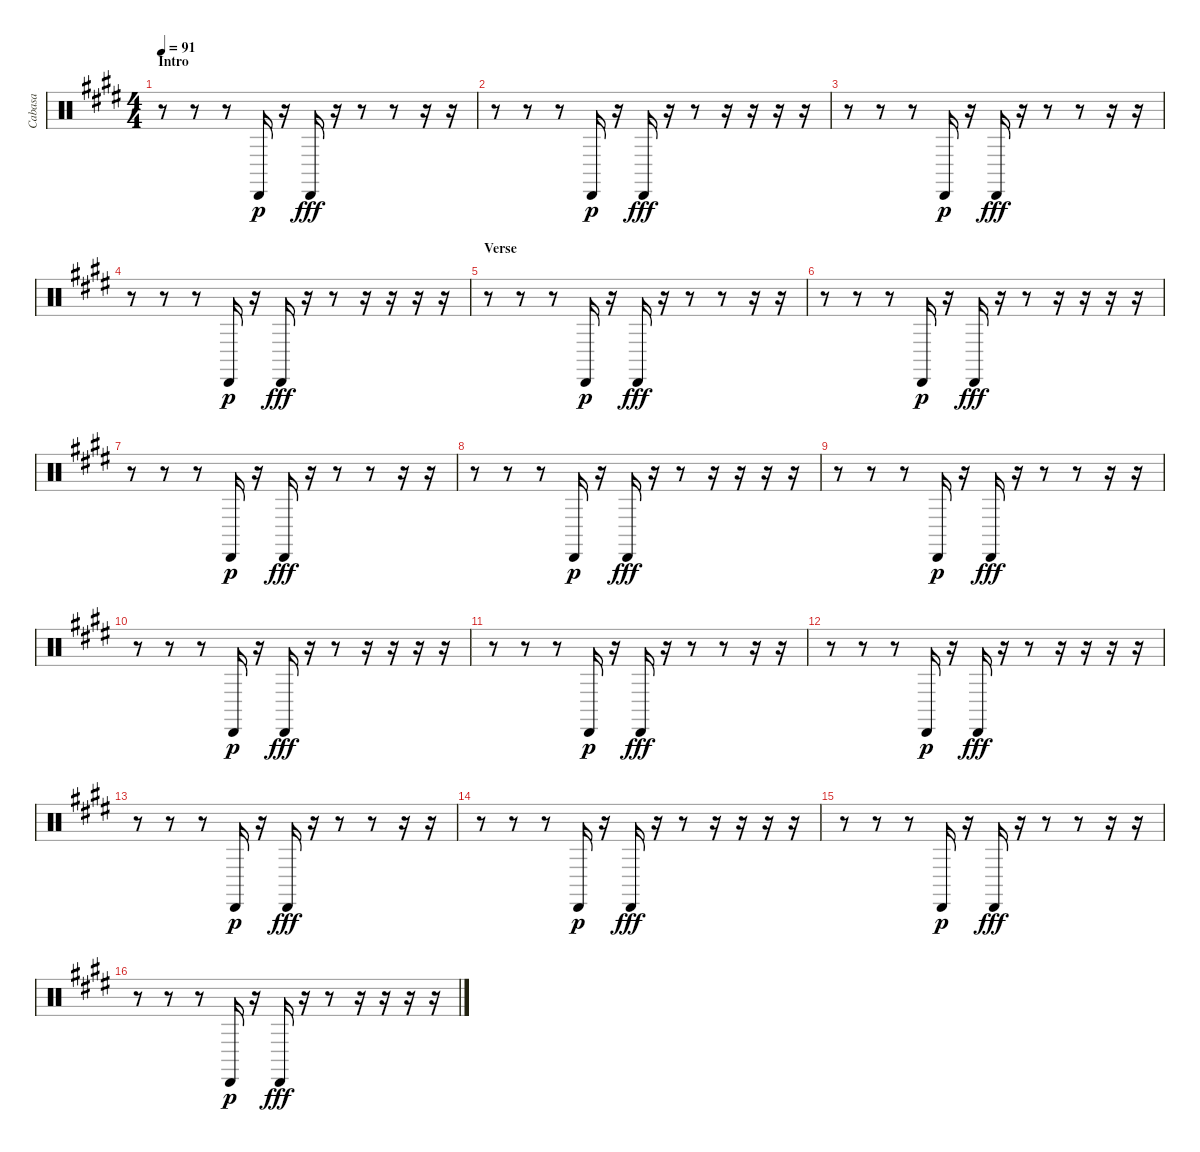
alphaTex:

\track ("Cabasa" "Cabasa") {instrument percussion}
\staff {score}
\articulation defaults
\ts (4 4)
\section ("" "Intro")
\tempo 91
\clef neutral
\ks e
r.8{dy p} r.8 r.8 "Cabasa (hit)".16 r.16 "Cabasa (hit)".16{dy fff} r.16 r.8 r.8 r.16 r.16 |
r.8 r.8 r.8 "Cabasa (hit)".16{dy p} r.16 "Cabasa (hit)".16{dy fff} r.16 r.8 r.16 r.16 r.16 r.16 |
r.8 r.8 r.8 "Cabasa (hit)".16{dy p} r.16 "Cabasa (hit)".16{dy fff} r.16 r.8 r.8 r.16 r.16 |
r.8 r.8 r.8 "Cabasa (hit)".16{dy p} r.16 "Cabasa (hit)".16{dy fff} r.16 r.8 r.16 r.16 r.16 r.16 |
\section ("" "Verse")
r.8 r.8 r.8 "Cabasa (hit)".16{dy p} r.16 "Cabasa (hit)".16{dy fff} r.16 r.8 r.8 r.16 r.16 |
r.8 r.8 r.8 "Cabasa (hit)".16{dy p} r.16 "Cabasa (hit)".16{dy fff} r.16 r.8 r.16 r.16 r.16 r.16 |
r.8 r.8 r.8 "Cabasa (hit)".16{dy p} r.16 "Cabasa (hit)".16{dy fff} r.16 r.8 r.8 r.16 r.16 |
r.8 r.8 r.8 "Cabasa (hit)".16{dy p} r.16 "Cabasa (hit)".16{dy fff} r.16 r.8 r.16 r.16 r.16 r.16 |
r.8 r.8 r.8 "Cabasa (hit)".16{dy p} r.16 "Cabasa (hit)".16{dy fff} r.16 r.8 r.8 r.16 r.16 |
r.8 r.8 r.8 "Cabasa (hit)".16{dy p} r.16 "Cabasa (hit)".16{dy fff} r.16 r.8 r.16 r.16 r.16 r.16 |
r.8 r.8 r.8 "Cabasa (hit)".16{dy p} r.16 "Cabasa (hit)".16{dy fff} r.16 r.8 r.8 r.16 r.16 |
r.8 r.8 r.8 "Cabasa (hit)".16{dy p} r.16 "Cabasa (hit)".16{dy fff} r.16 r.8 r.16 r.16 r.16 r.16 |
r.8 r.8 r.8 "Cabasa (hit)".16{dy p} r.16 "Cabasa (hit)".16{dy fff} r.16 r.8 r.8 r.16 r.16 |
r.8 r.8 r.8 "Cabasa (hit)".16{dy p} r.16 "Cabasa (hit)".16{dy fff} r.16 r.8 r.16 r.16 r.16 r.16 |
r.8 r.8 r.8 "Cabasa (hit)".16{dy p} r.16 "Cabasa (hit)".16{dy fff} r.16 r.8 r.8 r.16 r.16 |
r.8 r.8 r.8 "Cabasa (hit)".16{dy p} r.16 "Cabasa (hit)".16{dy fff} r.16 r.8 r.16 r.16 r.16 r.16
